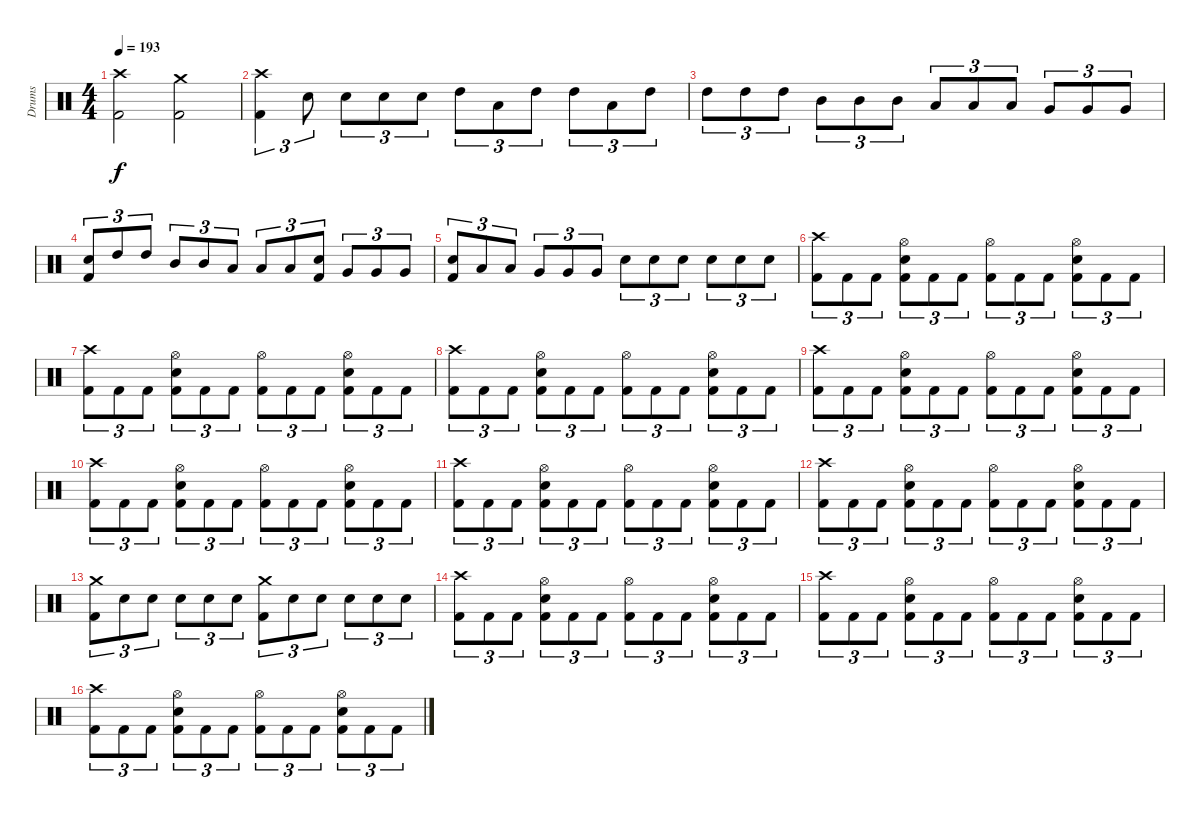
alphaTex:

\track ("Drums" "Drums") {instrument percussion}
\staff {score}
\articulation defaults
\ts (4 4)
\tempo 193
\clef neutral
\ks c
("Crash high (hit)" "Kick (hit) 2").2{dy f} ("Crash medium (hit)" "Kick (hit) 2").2 |
("Crash high (hit)" "Kick (hit) 2").4{tu (3 2)} "Electric Snare (hit)".8{tu (3 2)} "Electric Snare (hit)".8{tu (3 2)} "Electric Snare (hit)".8{tu (3 2)} "Electric Snare (hit)".8{tu (3 2)} "High Tom (hit)".8{tu (3 2)} "Low Tom (hit)".8{tu (3 2)} "High Tom (hit)".8{tu (3 2)} "High Tom (hit)".8{tu (3 2)} "Low Tom (hit)".8{tu (3 2)} "High Tom (hit)".8{tu (3 2)} |
"High Tom (hit)".8{tu (3 2)} "High Tom (hit)".8{tu (3 2)} "High Tom (hit)".8{tu (3 2)} "Mid Tom (hit)".8{tu (3 2)} "Mid Tom (hit)".8{tu (3 2)} "Mid Tom (hit)".8{tu (3 2)} "Low Tom (hit)".8{tu (3 2)} "Low Tom (hit)".8{tu (3 2)} "Low Tom (hit)".8{tu (3 2)} "Very Low Tom (hit)".8{tu (3 2)} "Very Low Tom (hit)".8{tu (3 2)} "Very Low Tom (hit)".8{tu (3 2)} |
("Electric Snare (hit)" "Kick (hit) 2").8{tu (3 2)} "High Tom (hit)".8{tu (3 2)} "High Tom (hit)".8{tu (3 2)} "Mid Tom (hit)".8{tu (3 2)} "Mid Tom (hit)".8{tu (3 2)} "Low Tom (hit)".8{tu (3 2)} "Low Tom (hit)".8{tu (3 2)} "Low Tom (hit)".8{tu (3 2)} ("Electric Snare (hit)" "Kick (hit) 2").8{tu (3 2)} "Very Low Tom (hit)".8{tu (3 2)} "Very Low Tom (hit)".8{tu (3 2)} "Very Low Tom (hit)".8{tu (3 2)} |
("Electric Snare (hit)" "Kick (hit) 2").8{tu (3 2)} "Low Tom (hit)".8{tu (3 2)} "Low Tom (hit)".8{tu (3 2)} "Very Low Tom (hit)".8{tu (3 2)} "Very Low Tom (hit)".8{tu (3 2)} "Very Low Tom (hit)".8{tu (3 2)} "Electric Snare (hit)".8{tu (3 2)} "Electric Snare (hit)".8{tu (3 2)} "Electric Snare (hit)".8{tu (3 2)} "Electric Snare (hit)".8{tu (3 2)} "Electric Snare (hit)".8{tu (3 2)} "Electric Snare (hit)".8{tu (3 2)} |
("Crash high (hit)" "Kick (hit) 2").8{tu (3 2)} "Kick (hit) 2".8{tu (3 2)} "Kick (hit) 2".8{tu (3 2)} ("Hi-Hat (open)" "Electric Snare (hit)" "Kick (hit) 2").8{tu (3 2)} "Kick (hit) 2".8{tu (3 2)} "Kick (hit) 2".8{tu (3 2)} ("Hi-Hat (open)" "Kick (hit) 2").8{tu (3 2)} "Kick (hit) 2".8{tu (3 2)} "Kick (hit) 2".8{tu (3 2)} ("Hi-Hat (open)" "Electric Snare (hit)" "Kick (hit) 2").8{tu (3 2)} "Kick (hit) 2".8{tu (3 2)} "Kick (hit) 2".8{tu (3 2)} |
("Crash high (hit)" "Kick (hit) 2").8{tu (3 2)} "Kick (hit) 2".8{tu (3 2)} "Kick (hit) 2".8{tu (3 2)} ("Hi-Hat (open)" "Electric Snare (hit)" "Kick (hit) 2").8{tu (3 2)} "Kick (hit) 2".8{tu (3 2)} "Kick (hit) 2".8{tu (3 2)} ("Hi-Hat (open)" "Kick (hit) 2").8{tu (3 2)} "Kick (hit) 2".8{tu (3 2)} "Kick (hit) 2".8{tu (3 2)} ("Hi-Hat (open)" "Electric Snare (hit)" "Kick (hit) 2").8{tu (3 2)} "Kick (hit) 2".8{tu (3 2)} "Kick (hit) 2".8{tu (3 2)} |
("Crash high (hit)" "Kick (hit) 2").8{tu (3 2)} "Kick (hit) 2".8{tu (3 2)} "Kick (hit) 2".8{tu (3 2)} ("Hi-Hat (open)" "Electric Snare (hit)" "Kick (hit) 2").8{tu (3 2)} "Kick (hit) 2".8{tu (3 2)} "Kick (hit) 2".8{tu (3 2)} ("Hi-Hat (open)" "Kick (hit) 2").8{tu (3 2)} "Kick (hit) 2".8{tu (3 2)} "Kick (hit) 2".8{tu (3 2)} ("Hi-Hat (open)" "Electric Snare (hit)" "Kick (hit) 2").8{tu (3 2)} "Kick (hit) 2".8{tu (3 2)} "Kick (hit) 2".8{tu (3 2)} |
("Crash high (hit)" "Kick (hit) 2").8{tu (3 2)} "Kick (hit) 2".8{tu (3 2)} "Kick (hit) 2".8{tu (3 2)} ("Hi-Hat (open)" "Electric Snare (hit)" "Kick (hit) 2").8{tu (3 2)} "Kick (hit) 2".8{tu (3 2)} "Kick (hit) 2".8{tu (3 2)} ("Hi-Hat (open)" "Kick (hit) 2").8{tu (3 2)} "Kick (hit) 2".8{tu (3 2)} "Kick (hit) 2".8{tu (3 2)} ("Hi-Hat (open)" "Electric Snare (hit)" "Kick (hit) 2").8{tu (3 2)} "Kick (hit) 2".8{tu (3 2)} "Kick (hit) 2".8{tu (3 2)} |
("Crash high (hit)" "Kick (hit) 2").8{tu (3 2)} "Kick (hit) 2".8{tu (3 2)} "Kick (hit) 2".8{tu (3 2)} ("Hi-Hat (open)" "Electric Snare (hit)" "Kick (hit) 2").8{tu (3 2)} "Kick (hit) 2".8{tu (3 2)} "Kick (hit) 2".8{tu (3 2)} ("Hi-Hat (open)" "Kick (hit) 2").8{tu (3 2)} "Kick (hit) 2".8{tu (3 2)} "Kick (hit) 2".8{tu (3 2)} ("Hi-Hat (open)" "Electric Snare (hit)" "Kick (hit) 2").8{tu (3 2)} "Kick (hit) 2".8{tu (3 2)} "Kick (hit) 2".8{tu (3 2)} |
("Crash high (hit)" "Kick (hit) 2").8{tu (3 2)} "Kick (hit) 2".8{tu (3 2)} "Kick (hit) 2".8{tu (3 2)} ("Hi-Hat (open)" "Electric Snare (hit)" "Kick (hit) 2").8{tu (3 2)} "Kick (hit) 2".8{tu (3 2)} "Kick (hit) 2".8{tu (3 2)} ("Hi-Hat (open)" "Kick (hit) 2").8{tu (3 2)} "Kick (hit) 2".8{tu (3 2)} "Kick (hit) 2".8{tu (3 2)} ("Hi-Hat (open)" "Electric Snare (hit)" "Kick (hit) 2").8{tu (3 2)} "Kick (hit) 2".8{tu (3 2)} "Kick (hit) 2".8{tu (3 2)} |
("Crash high (hit)" "Kick (hit) 2").8{tu (3 2)} "Kick (hit) 2".8{tu (3 2)} "Kick (hit) 2".8{tu (3 2)} ("Hi-Hat (open)" "Electric Snare (hit)" "Kick (hit) 2").8{tu (3 2)} "Kick (hit) 2".8{tu (3 2)} "Kick (hit) 2".8{tu (3 2)} ("Hi-Hat (open)" "Kick (hit) 2").8{tu (3 2)} "Kick (hit) 2".8{tu (3 2)} "Kick (hit) 2".8{tu (3 2)} ("Hi-Hat (open)" "Electric Snare (hit)" "Kick (hit) 2").8{tu (3 2)} "Kick (hit) 2".8{tu (3 2)} "Kick (hit) 2".8{tu (3 2)} |
("Crash medium (hit)" "Kick (hit) 2").8{tu (3 2)} "Electric Snare (hit)".8{tu (3 2)} "Electric Snare (hit)".8{tu (3 2)} "Electric Snare (hit)".8{tu (3 2)} "Electric Snare (hit)".8{tu (3 2)} "Electric Snare (hit)".8{tu (3 2)} ("Crash medium (hit)" "Kick (hit) 2").8{tu (3 2)} "Electric Snare (hit)".8{tu (3 2)} "Electric Snare (hit)".8{tu (3 2)} "Electric Snare (hit)".8{tu (3 2)} "Electric Snare (hit)".8{tu (3 2)} "Electric Snare (hit)".8{tu (3 2)} |
("Crash high (hit)" "Kick (hit) 2").8{tu (3 2)} "Kick (hit) 2".8{tu (3 2)} "Kick (hit) 2".8{tu (3 2)} ("Hi-Hat (open)" "Electric Snare (hit)" "Kick (hit) 2").8{tu (3 2)} "Kick (hit) 2".8{tu (3 2)} "Kick (hit) 2".8{tu (3 2)} ("Hi-Hat (open)" "Kick (hit) 2").8{tu (3 2)} "Kick (hit) 2".8{tu (3 2)} "Kick (hit) 2".8{tu (3 2)} ("Hi-Hat (open)" "Electric Snare (hit)" "Kick (hit) 2").8{tu (3 2)} "Kick (hit) 2".8{tu (3 2)} "Kick (hit) 2".8{tu (3 2)} |
("Crash high (hit)" "Kick (hit) 2").8{tu (3 2)} "Kick (hit) 2".8{tu (3 2)} "Kick (hit) 2".8{tu (3 2)} ("Hi-Hat (open)" "Electric Snare (hit)" "Kick (hit) 2").8{tu (3 2)} "Kick (hit) 2".8{tu (3 2)} "Kick (hit) 2".8{tu (3 2)} ("Hi-Hat (open)" "Kick (hit) 2").8{tu (3 2)} "Kick (hit) 2".8{tu (3 2)} "Kick (hit) 2".8{tu (3 2)} ("Hi-Hat (open)" "Electric Snare (hit)" "Kick (hit) 2").8{tu (3 2)} "Kick (hit) 2".8{tu (3 2)} "Kick (hit) 2".8{tu (3 2)} |
("Crash high (hit)" "Kick (hit) 2").8{tu (3 2)} "Kick (hit) 2".8{tu (3 2)} "Kick (hit) 2".8{tu (3 2)} ("Hi-Hat (open)" "Electric Snare (hit)" "Kick (hit) 2").8{tu (3 2)} "Kick (hit) 2".8{tu (3 2)} "Kick (hit) 2".8{tu (3 2)} ("Hi-Hat (open)" "Kick (hit) 2").8{tu (3 2)} "Kick (hit) 2".8{tu (3 2)} "Kick (hit) 2".8{tu (3 2)} ("Hi-Hat (open)" "Electric Snare (hit)" "Kick (hit) 2").8{tu (3 2)} "Kick (hit) 2".8{tu (3 2)} "Kick (hit) 2".8{tu (3 2)}
